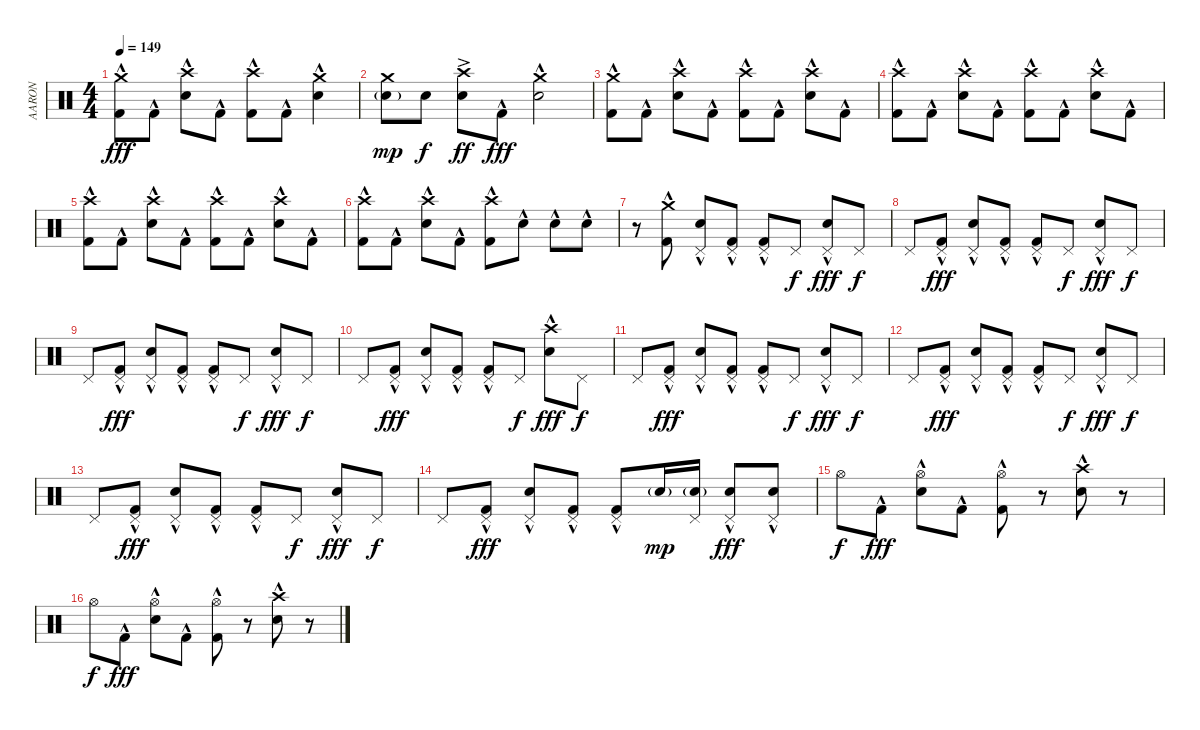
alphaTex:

\track ("AARON" "AARON") {instrument percussion}
\staff {score}
\articulation defaults
\ts (4 4)
\tempo 149
\clef neutral
\ks c
("Crash medium (hit)" "Kick (hit) 2"{hac}).8{dy fff} "Kick (hit) 2"{hac}.8 ("Crash high (hit)" "Snare (hit) 2"{hac}).8 "Kick (hit) 2"{hac}.8 ("Crash high (hit)" "Kick (hit) 2"{hac}).8 "Kick (hit) 2"{hac}.8 ("Crash medium (hit)" "Snare (hit) 2"{hac}).4 |
("Crash medium (hit)" "Snare (hit) 2"{g}).8{dy mp} "Snare (hit) 2".8{dy f} ("Crash high (hit)" "Snare (hit) 2"{ac}).8{dy ff} "Kick (hit) 2"{hac}.8{dy fff} ("Crash medium (hit)" "Snare (hit) 2"{hac}).2 |
("Crash medium (hit)" "Kick (hit) 2"{hac}).8 "Kick (hit) 2"{hac}.8 ("Crash high (hit)" "Snare (hit) 2"{hac}).8 "Kick (hit) 2"{hac}.8 ("Crash high (hit)" "Kick (hit) 2"{hac}).8 "Kick (hit) 2"{hac}.8 ("Crash high (hit)" "Snare (hit) 2"{hac}).8 "Kick (hit) 2"{hac}.8 |
("Crash high (hit)" "Kick (hit) 2"{hac}).8 "Kick (hit) 2"{hac}.8 ("Crash high (hit)" "Snare (hit) 2"{hac}).8 "Kick (hit) 2"{hac}.8 ("Crash high (hit)" "Kick (hit) 2"{hac}).8 "Kick (hit) 2"{hac}.8 ("Crash high (hit)" "Snare (hit) 2"{hac}).8 "Kick (hit) 2"{hac}.8 |
("Crash high (hit)" "Kick (hit) 2"{hac}).8 "Kick (hit) 2"{hac}.8 ("Crash high (hit)" "Snare (hit) 2"{hac}).8 "Kick (hit) 2"{hac}.8 ("Crash high (hit)" "Kick (hit) 2"{hac}).8 "Kick (hit) 2"{hac}.8 ("Crash high (hit)" "Snare (hit) 2"{hac}).8 "Kick (hit) 2"{hac}.8 |
("Crash high (hit)" "Kick (hit) 2"{hac}).8 "Kick (hit) 2"{hac}.8 ("Crash high (hit)" "Snare (hit) 2"{hac}).8 "Kick (hit) 2"{hac}.8 ("Crash high (hit)" "Kick (hit) 2"{hac}).8 "Snare (hit) 2"{hac}.8 "Snare (hit) 2"{hac}.8 "Snare (hit) 2"{hac}.8 |
r.8 ("Crash medium (hit)" "Kick (hit) 2"{hac}).8 ("Pedal Hi-Hat (hit)" "Snare (hit) 2"{hac}).8 ("Pedal Hi-Hat (hit)" "Kick (hit) 2"{hac}).8 ("Pedal Hi-Hat (hit)" "Kick (hit) 2"{hac}).8 "Pedal Hi-Hat (hit)".8{dy f} ("Pedal Hi-Hat (hit)" "Snare (hit) 2"{hac}).8{dy fff} "Pedal Hi-Hat (hit)".8{dy f} |
"Pedal Hi-Hat (hit)".8 ("Pedal Hi-Hat (hit)" "Kick (hit) 2"{hac}).8{dy fff} ("Pedal Hi-Hat (hit)" "Snare (hit) 2"{hac}).8 ("Pedal Hi-Hat (hit)" "Kick (hit) 2"{hac}).8 ("Pedal Hi-Hat (hit)" "Kick (hit) 2"{hac}).8 "Pedal Hi-Hat (hit)".8{dy f} ("Pedal Hi-Hat (hit)" "Snare (hit) 2"{hac}).8{dy fff} "Pedal Hi-Hat (hit)".8{dy f} |
"Pedal Hi-Hat (hit)".8 ("Pedal Hi-Hat (hit)" "Kick (hit) 2"{hac}).8{dy fff} ("Pedal Hi-Hat (hit)" "Snare (hit) 2"{hac}).8 ("Pedal Hi-Hat (hit)" "Kick (hit) 2"{hac}).8 ("Pedal Hi-Hat (hit)" "Kick (hit) 2"{hac}).8 "Pedal Hi-Hat (hit)".8{dy f} ("Pedal Hi-Hat (hit)" "Snare (hit) 2"{hac}).8{dy fff} "Pedal Hi-Hat (hit)".8{dy f} |
"Pedal Hi-Hat (hit)".8 ("Pedal Hi-Hat (hit)" "Kick (hit) 2"{hac}).8{dy fff} ("Pedal Hi-Hat (hit)" "Snare (hit) 2"{hac}).8 ("Pedal Hi-Hat (hit)" "Kick (hit) 2"{hac}).8 ("Pedal Hi-Hat (hit)" "Kick (hit) 2"{hac}).8 "Pedal Hi-Hat (hit)".8{dy f} ("Crash high (hit)" "Snare (hit) 2"{hac}).8{dy fff} "Pedal Hi-Hat (hit)".8{dy f} |
"Pedal Hi-Hat (hit)".8 ("Pedal Hi-Hat (hit)" "Kick (hit) 2"{hac}).8{dy fff} ("Pedal Hi-Hat (hit)" "Snare (hit) 2"{hac}).8 ("Pedal Hi-Hat (hit)" "Kick (hit) 2"{hac}).8 ("Pedal Hi-Hat (hit)" "Kick (hit) 2"{hac}).8 "Pedal Hi-Hat (hit)".8{dy f} ("Pedal Hi-Hat (hit)" "Snare (hit) 2"{hac}).8{dy fff} "Pedal Hi-Hat (hit)".8{dy f} |
"Pedal Hi-Hat (hit)".8 ("Pedal Hi-Hat (hit)" "Kick (hit) 2"{hac}).8{dy fff} ("Pedal Hi-Hat (hit)" "Snare (hit) 2"{hac}).8 ("Pedal Hi-Hat (hit)" "Kick (hit) 2"{hac}).8 ("Pedal Hi-Hat (hit)" "Kick (hit) 2"{hac}).8 "Pedal Hi-Hat (hit)".8{dy f} ("Pedal Hi-Hat (hit)" "Snare (hit) 2"{hac}).8{dy fff} "Pedal Hi-Hat (hit)".8{dy f} |
"Pedal Hi-Hat (hit)".8 ("Pedal Hi-Hat (hit)" "Kick (hit) 2"{hac}).8{dy fff} ("Pedal Hi-Hat (hit)" "Snare (hit) 2"{hac}).8 ("Pedal Hi-Hat (hit)" "Kick (hit) 2"{hac}).8 ("Pedal Hi-Hat (hit)" "Kick (hit) 2"{hac}).8 "Pedal Hi-Hat (hit)".8{dy f} ("Pedal Hi-Hat (hit)" "Snare (hit) 2"{hac}).8{dy fff} "Pedal Hi-Hat (hit)".8{dy f} |
"Pedal Hi-Hat (hit)".8 ("Pedal Hi-Hat (hit)" "Kick (hit) 2"{hac}).8{dy fff} ("Pedal Hi-Hat (hit)" "Snare (hit) 2"{hac}).8 ("Pedal Hi-Hat (hit)" "Kick (hit) 2"{hac}).8 ("Pedal Hi-Hat (hit)" "Kick (hit) 2"{hac}).8 "Snare (hit) 2"{g}.16{dy mp} ("Pedal Hi-Hat (hit)" "Snare (hit) 2"{g}).16 ("Pedal Hi-Hat (hit)" "Snare (hit) 2"{hac}).8{dy fff} ("Pedal Hi-Hat (hit)" "Snare (hit) 2"{hac}).8 |
"Hi-Hat (open)".8{dy f} "Kick (hit) 2"{hac}.8{dy fff} ("Hi-Hat (open)" "Snare (hit) 2"{hac}).8 "Kick (hit) 2"{hac}.8 ("Hi-Hat (open)" "Kick (hit) 2"{hac}).8 r.8 ("Crash high (hit)" "Snare (hit) 2"{hac}).8 r.8 |
"Hi-Hat (open)".8{dy f} "Kick (hit) 2"{hac}.8{dy fff} ("Hi-Hat (open)" "Snare (hit) 2"{hac}).8 "Kick (hit) 2"{hac}.8 ("Hi-Hat (open)" "Kick (hit) 2"{hac}).8 r.8 ("Crash high (hit)" "Snare (hit) 2"{hac}).8 r.8
